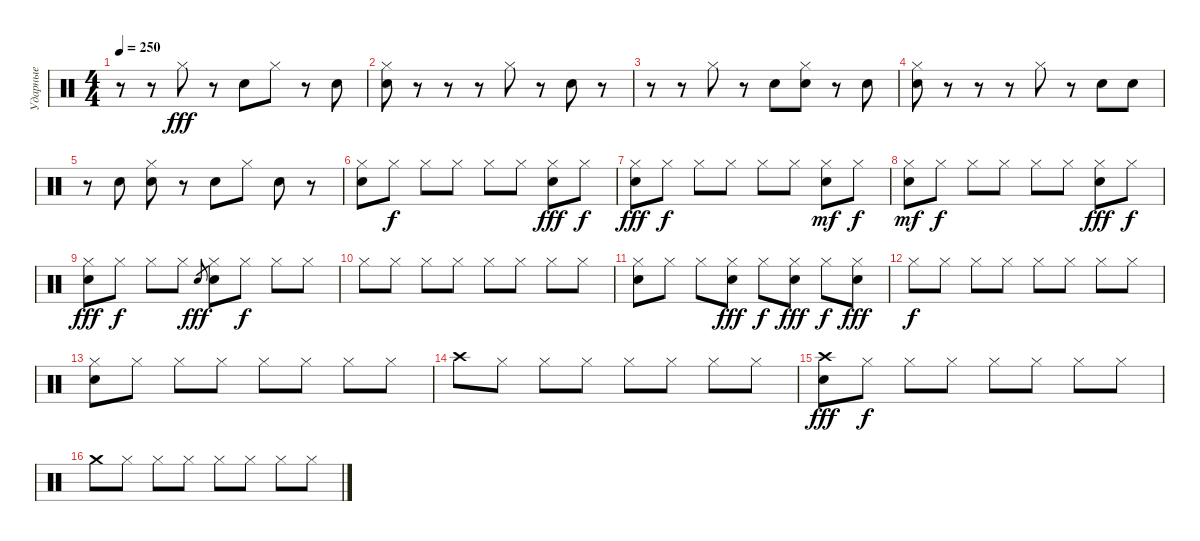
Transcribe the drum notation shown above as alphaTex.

\track ("Ударные" "Ударные") {instrument percussion}
\staff {score}
\articulation defaults
\ts (4 4)
\tempo 250
\clef neutral
\ks c
r.8{dy fff} r.8 "Hi-Hat (closed)".8 r.8 "Snare (hit) 2".8 "Hi-Hat (closed)".8 r.8 "Snare (hit) 2".8 |
("Hi-Hat (closed)" "Snare (hit) 2").8 r.8 r.8 r.8 "Hi-Hat (closed)".8 r.8 "Snare (hit) 2".8 r.8 |
r.8 r.8 "Hi-Hat (closed)".8 r.8 "Snare (hit) 2".8 ("Hi-Hat (closed)" "Snare (hit) 2").8 r.8 "Snare (hit) 2".8 |
("Hi-Hat (closed)" "Snare (hit) 2").8 r.8 r.8 r.8 "Hi-Hat (closed)".8 r.8 "Snare (hit) 2".8 "Snare (hit) 2".8 |
r.8 "Snare (hit) 2".8 ("Hi-Hat (closed)" "Snare (hit) 2").8 r.8 "Snare (hit) 2".8 "Hi-Hat (closed)".8 "Snare (hit) 2".8 r.8 |
("Hi-Hat (closed)" "Snare (hit) 2").8 "Hi-Hat (closed)".8{dy f} "Hi-Hat (closed)".8 "Hi-Hat (closed)".8 "Hi-Hat (closed)".8 "Hi-Hat (closed)".8 ("Hi-Hat (closed)" "Snare (hit) 2").8{dy fff} "Hi-Hat (closed)".8{dy f} |
("Hi-Hat (closed)" "Snare (hit) 2").8{dy fff} "Hi-Hat (closed)".8{dy f} "Hi-Hat (closed)".8 "Hi-Hat (closed)".8 "Hi-Hat (closed)".8 "Hi-Hat (closed)".8 ("Hi-Hat (closed)" "Snare (hit) 2").8{dy mf} "Hi-Hat (closed)".8{dy f} |
("Hi-Hat (closed)" "Snare (hit) 2").8{dy mf} "Hi-Hat (closed)".8{dy f} "Hi-Hat (closed)".8 "Hi-Hat (closed)".8 "Hi-Hat (closed)".8 "Hi-Hat (closed)".8 ("Hi-Hat (closed)" "Snare (hit) 2").8{dy fff} "Hi-Hat (closed)".8{dy f} |
("Hi-Hat (closed)" "Snare (hit) 2").8{dy fff} "Hi-Hat (closed)".8{dy f} "Hi-Hat (closed)".8 "Hi-Hat (closed)".8 "Snare (hit) 2".8{gr dy fff} ("Hi-Hat (closed)" "Snare (hit) 2").8 "Hi-Hat (closed)".8{dy f} "Hi-Hat (closed)".8 "Hi-Hat (closed)".8 |
"Hi-Hat (closed)".8 "Hi-Hat (closed)".8 "Hi-Hat (closed)".8 "Hi-Hat (closed)".8 "Hi-Hat (closed)".8 "Hi-Hat (closed)".8 "Hi-Hat (closed)".8 "Hi-Hat (closed)".8 |
("Hi-Hat (closed)" "Snare (hit) 2").8 "Hi-Hat (closed)".8 "Hi-Hat (closed)".8 ("Hi-Hat (closed)" "Snare (hit) 2").8{dy fff} "Hi-Hat (closed)".8{dy f} ("Hi-Hat (closed)" "Snare (hit) 2").8{dy fff} "Hi-Hat (closed)".8{dy f} ("Hi-Hat (closed)" "Snare (hit) 2").8{dy fff} |
"Hi-Hat (closed)".8{dy f} "Hi-Hat (closed)".8 "Hi-Hat (closed)".8 "Hi-Hat (closed)".8 "Hi-Hat (closed)".8 "Hi-Hat (closed)".8 "Hi-Hat (closed)".8 "Hi-Hat (closed)".8 |
("Hi-Hat (closed)" "Snare (hit) 2").8 "Hi-Hat (closed)".8 "Hi-Hat (closed)".8 "Hi-Hat (closed)".8 "Hi-Hat (closed)".8 "Hi-Hat (closed)".8 "Hi-Hat (closed)".8 "Hi-Hat (closed)".8 |
"Crash high (hit)".8 "Hi-Hat (closed)".8 "Hi-Hat (closed)".8 "Hi-Hat (closed)".8 "Hi-Hat (closed)".8 "Hi-Hat (closed)".8 "Hi-Hat (closed)".8 "Hi-Hat (closed)".8 |
("Crash high (hit)" "Snare (hit) 2").8{dy fff} "Hi-Hat (closed)".8{dy f} "Hi-Hat (closed)".8 "Hi-Hat (closed)".8 "Hi-Hat (closed)".8 "Hi-Hat (closed)".8 "Hi-Hat (closed)".8 "Hi-Hat (closed)".8 |
"Crash medium (hit)".8 "Hi-Hat (closed)".8 "Hi-Hat (closed)".8 "Hi-Hat (closed)".8 "Hi-Hat (closed)".8 "Hi-Hat (closed)".8 "Hi-Hat (closed)".8 "Hi-Hat (closed)".8
